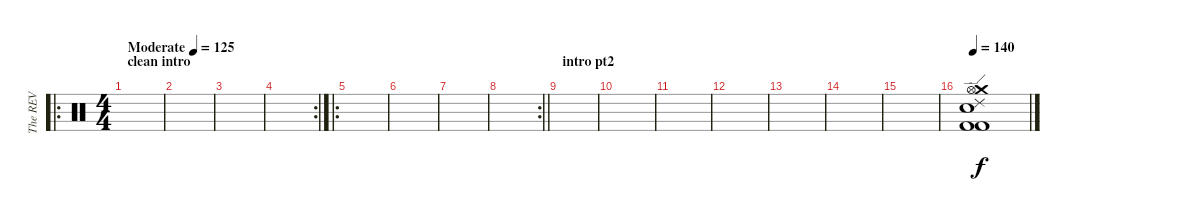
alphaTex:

\track ("The REV" "The REV") {instrument percussion}
\staff {score}
\articulation defaults
\ro
\ts (4 4)
\section ("" "clean intro")
\tempo (125 "Moderate")
\clef neutral
\ks c
|
|
|
\rc 2
|
\ro
|
|
|
\rc 2
\barLineRight lightlight
|
\section ("" "intro pt2")
|
|
|
|
|
|
|
\tempo 140
("Crash medium (hit)" "Hi-Hat (open)" "Electric Snare (hit)" "Kick (hit) 2" "Kick (hit) 2" "Ride (edge) 2").1
